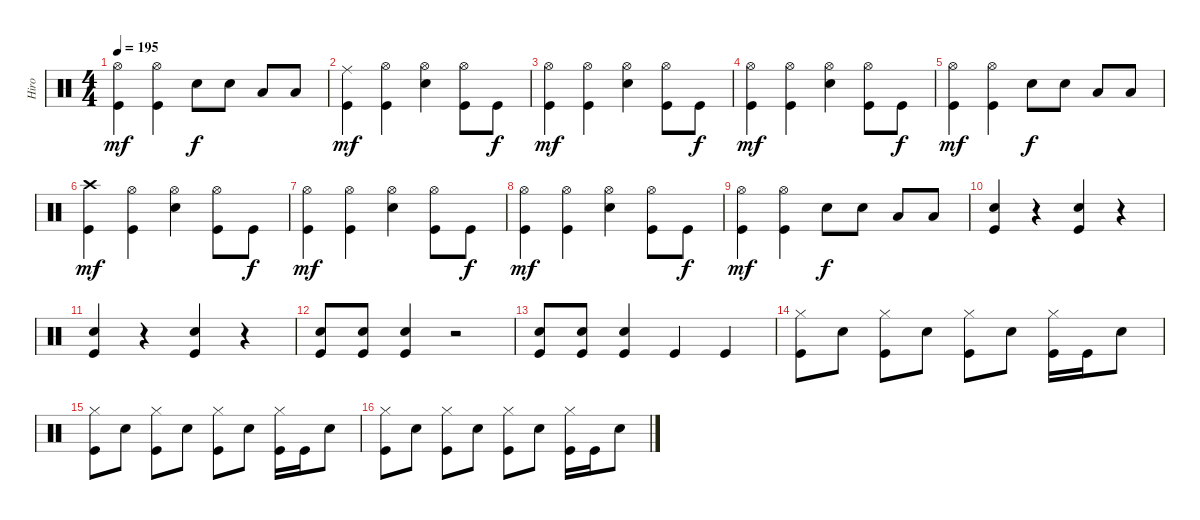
\track ("Hiro" "Hiro") {instrument percussion}
\staff {score}
\articulation defaults
\ts (4 4)
\tempo 195
\clef neutral
\ks c
("Kick (hit)" "Hi-Hat (open)").4{dy mf} ("Kick (hit)" "Hi-Hat (open)").4 "Snare (hit) 2".8{dy f} "Snare (hit) 2".8 "Low Tom (hit)".8 "Low Tom (hit)".8 |
("Kick (hit)" "Ride (middle)").4{dy mf} ("Kick (hit)" "Hi-Hat (open)").4 ("Snare (hit) 2" "Hi-Hat (open)").4 ("Kick (hit)" "Hi-Hat (open)").8 "Kick (hit)".8{dy f} |
("Kick (hit)" "Hi-Hat (open)").4{dy mf} ("Kick (hit)" "Hi-Hat (open)").4 ("Hi-Hat (open)" "Snare (hit) 2").4 ("Kick (hit)" "Hi-Hat (open)").8 "Kick (hit)".8{dy f} |
("Hi-Hat (open)" "Kick (hit)").4{dy mf} ("Hi-Hat (open)" "Kick (hit)").4 ("Hi-Hat (open)" "Snare (hit) 2").4 ("Hi-Hat (open)" "Kick (hit)").8 "Kick (hit)".8{dy f} |
("Hi-Hat (open)" "Kick (hit)").4{dy mf} ("Hi-Hat (open)" "Kick (hit)").4 "Snare (hit) 2".8{dy f} "Snare (hit) 2".8 "Low Tom (hit)".8 "Low Tom (hit)".8 |
("Kick (hit)" "Crash high (hit)").4{dy mf} ("Kick (hit)" "Hi-Hat (open)").4 ("Snare (hit) 2" "Hi-Hat (open)").4 ("Kick (hit)" "Hi-Hat (open)").8 "Kick (hit)".8{dy f} |
("Kick (hit)" "Hi-Hat (open)").4{dy mf} ("Kick (hit)" "Hi-Hat (open)").4 ("Hi-Hat (open)" "Snare (hit) 2").4 ("Kick (hit)" "Hi-Hat (open)").8 "Kick (hit)".8{dy f} |
("Hi-Hat (open)" "Kick (hit)").4{dy mf} ("Hi-Hat (open)" "Kick (hit)").4 ("Hi-Hat (open)" "Snare (hit) 2").4 ("Hi-Hat (open)" "Kick (hit)").8 "Kick (hit)".8{dy f} |
("Hi-Hat (open)" "Kick (hit)").4{dy mf} ("Hi-Hat (open)" "Kick (hit)").4 "Snare (hit) 2".8{dy f} "Snare (hit) 2".8 "Low Tom (hit)".8 "Low Tom (hit)".8 |
("Snare (hit) 2" "Kick (hit)").4 r.4 ("Snare (hit) 2" "Kick (hit)").4 r.4 |
("Snare (hit) 2" "Kick (hit)").4 r.4 ("Snare (hit) 2" "Kick (hit)").4 r.4 |
("Kick (hit)" "Snare (hit) 2").8 ("Kick (hit)" "Snare (hit) 2").8 ("Kick (hit)" "Snare (hit) 2").4 r.2 |
("Snare (hit) 2" "Kick (hit)").8 ("Snare (hit) 2" "Kick (hit)").8 ("Snare (hit) 2" "Kick (hit)").4 "Kick (hit)".4 "Kick (hit)".4 |
("Kick (hit)" "Hi-Hat (closed)").8 "Snare (hit) 2".8 ("Kick (hit)" "Hi-Hat (closed)").8 "Snare (hit) 2".8 ("Kick (hit)" "Hi-Hat (closed)").8 "Snare (hit) 2".8 ("Kick (hit)" "Hi-Hat (closed)").16 "Kick (hit)".16 "Snare (hit) 2".8 |
("Kick (hit)" "Hi-Hat (closed)").8 "Snare (hit) 2".8 ("Kick (hit)" "Hi-Hat (closed)").8 "Snare (hit) 2".8 ("Kick (hit)" "Hi-Hat (closed)").8 "Snare (hit) 2".8 ("Kick (hit)" "Hi-Hat (closed)").16 "Kick (hit)".16 "Snare (hit) 2".8 |
("Kick (hit)" "Hi-Hat (closed)").8 "Snare (hit) 2".8 ("Kick (hit)" "Hi-Hat (closed)").8 "Snare (hit) 2".8 ("Kick (hit)" "Hi-Hat (closed)").8 "Snare (hit) 2".8 ("Kick (hit)" "Hi-Hat (closed)").16 "Kick (hit)".16 "Snare (hit) 2".8
